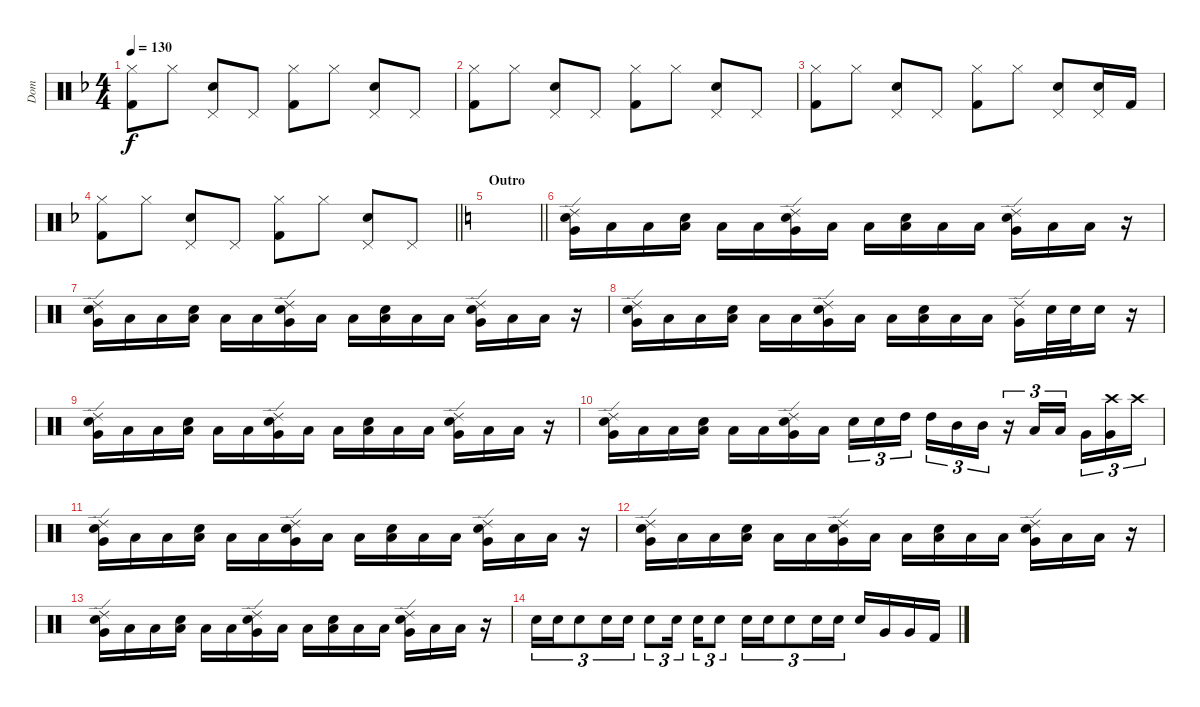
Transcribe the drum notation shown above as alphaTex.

\track ("Dom" "Dom") {instrument percussion}
\staff {score}
\articulation defaults
\ts (4 4)
\tempo 130
\clef neutral
\ks f
("Hi-Hat (closed)" "Kick (hit) 2").8{dy f} "Hi-Hat (closed)".8 ("Pedal Hi-Hat (hit)" "Electric Snare (hit)").8 "Pedal Hi-Hat (hit)".8 ("Hi-Hat (closed)" "Kick (hit) 2").8 "Hi-Hat (closed)".8 ("Pedal Hi-Hat (hit)" "Electric Snare (hit)").8 "Pedal Hi-Hat (hit)".8 |
("Hi-Hat (closed)" "Kick (hit) 2").8 "Hi-Hat (closed)".8 ("Pedal Hi-Hat (hit)" "Electric Snare (hit)").8 "Pedal Hi-Hat (hit)".8 ("Hi-Hat (closed)" "Kick (hit) 2").8 "Hi-Hat (closed)".8 ("Pedal Hi-Hat (hit)" "Electric Snare (hit)").8 "Pedal Hi-Hat (hit)".8 |
("Hi-Hat (closed)" "Kick (hit) 2").8 "Hi-Hat (closed)".8 ("Pedal Hi-Hat (hit)" "Electric Snare (hit)").8 "Pedal Hi-Hat (hit)".8 ("Hi-Hat (closed)" "Kick (hit) 2").8 "Hi-Hat (closed)".8 ("Pedal Hi-Hat (hit)" "Electric Snare (hit)").8 ("Pedal Hi-Hat (hit)" "Electric Snare (hit)").16 "Kick (hit) 2".16 |
\barLineRight lightlight
("Hi-Hat (closed)" "Kick (hit) 2").8 "Hi-Hat (closed)".8 ("Pedal Hi-Hat (hit)" "Electric Snare (hit)").8 "Pedal Hi-Hat (hit)".8 ("Hi-Hat (closed)" "Kick (hit) 2").8 "Hi-Hat (closed)".8 ("Pedal Hi-Hat (hit)" "Electric Snare (hit)").8 "Pedal Hi-Hat (hit)".8 |
\section ("" "Outro")
\barLineRight lightlight
\ks c
|
\section ("" "")
("Ride (edge) 2" "Snare (hit) 2" "Very Low Tom (hit)").16 "Low Floor Tom (hit)".16 "Low Floor Tom (hit)".16 ("Snare (hit) 2" "Low Floor Tom (hit)").16 "Low Floor Tom (hit)".16 "Low Floor Tom (hit)".16 ("Ride (edge) 2" "Snare (hit) 2" "Very Low Tom (hit)").16 "Low Floor Tom (hit)".16 "Low Floor Tom (hit)".16 ("Snare (hit) 2" "Low Floor Tom (hit)").16 "Low Floor Tom (hit)".16 "Low Floor Tom (hit)".16 ("Ride (edge) 2" "Snare (hit) 2" "Very Low Tom (hit)").16 "Low Floor Tom (hit)".16 "Low Floor Tom (hit)".16 r.16 |
("Ride (edge) 2" "Snare (hit) 2" "Very Low Tom (hit)").16 "Low Floor Tom (hit)".16 "Low Floor Tom (hit)".16 ("Snare (hit) 2" "Low Floor Tom (hit)").16 "Low Floor Tom (hit)".16 "Low Floor Tom (hit)".16 ("Ride (edge) 2" "Snare (hit) 2" "Very Low Tom (hit)").16 "Low Floor Tom (hit)".16 "Low Floor Tom (hit)".16 ("Snare (hit) 2" "Low Floor Tom (hit)").16 "Low Floor Tom (hit)".16 "Low Floor Tom (hit)".16 ("Ride (edge) 2" "Snare (hit) 2" "Very Low Tom (hit)").16 "Low Floor Tom (hit)".16 "Low Floor Tom (hit)".16 r.16 |
("Ride (edge) 2" "Snare (hit) 2" "Very Low Tom (hit)").16 "Low Floor Tom (hit)".16 "Low Floor Tom (hit)".16 ("Snare (hit) 2" "Low Floor Tom (hit)").16 "Low Floor Tom (hit)".16 "Low Floor Tom (hit)".16 ("Ride (edge) 2" "Snare (hit) 2" "Very Low Tom (hit)").16 "Low Floor Tom (hit)".16 "Low Floor Tom (hit)".16 ("Snare (hit) 2" "Low Floor Tom (hit)").16 "Low Floor Tom (hit)".16 "Low Floor Tom (hit)".16 ("Ride (edge) 2" "Very Low Tom (hit)").16 "Snare (hit) 2".32 "Snare (hit) 2".32 "Snare (hit) 2".16 r.16 |
("Ride (edge) 2" "Snare (hit) 2" "Very Low Tom (hit)").16 "Low Floor Tom (hit)".16 "Low Floor Tom (hit)".16 ("Snare (hit) 2" "Low Floor Tom (hit)").16 "Low Floor Tom (hit)".16 "Low Floor Tom (hit)".16 ("Ride (edge) 2" "Snare (hit) 2" "Very Low Tom (hit)").16 "Low Floor Tom (hit)".16 "Low Floor Tom (hit)".16 ("Snare (hit) 2" "Low Floor Tom (hit)").16 "Low Floor Tom (hit)".16 "Low Floor Tom (hit)".16 ("Ride (edge) 2" "Snare (hit) 2" "Very Low Tom (hit)").16 "Low Floor Tom (hit)".16 "Low Floor Tom (hit)".16 r.16 |
("Ride (edge) 2" "Snare (hit) 2" "Very Low Tom (hit)").16 "Low Floor Tom (hit)".16 "Low Floor Tom (hit)".16 ("Snare (hit) 2" "Low Floor Tom (hit)").16 "Low Floor Tom (hit)".16 "Low Floor Tom (hit)".16 ("Ride (edge) 2" "Snare (hit) 2" "Very Low Tom (hit)").16 "Low Floor Tom (hit)".16 "Electric Snare (hit)".16{tu (3 2)} "Electric Snare (hit)".16{tu (3 2)} "High Tom (hit)".16{tu (3 2) beam splitsecondary} "High Tom (hit)".16{tu (3 2)} "Mid Tom (hit)".16{tu (3 2)} "Mid Tom (hit)".16{tu (3 2)} r.16{tu (3 2)} "Low Tom (hit)".16{tu (3 2)} "Low Tom (hit)".16{tu (3 2) beam splitsecondary} "Very Low Tom (hit)".16{tu (3 2)} ("Crash high (hit)" "Very Low Tom (hit)").16{tu (3 2)} "Crash high (hit)".16{tu (3 2)} |
("Ride (edge) 2" "Snare (hit) 2" "Very Low Tom (hit)").16 "Low Floor Tom (hit)".16 "Low Floor Tom (hit)".16 ("Snare (hit) 2" "Low Floor Tom (hit)").16 "Low Floor Tom (hit)".16 "Low Floor Tom (hit)".16 ("Ride (edge) 2" "Snare (hit) 2" "Very Low Tom (hit)").16 "Low Floor Tom (hit)".16 "Low Floor Tom (hit)".16 ("Snare (hit) 2" "Low Floor Tom (hit)").16 "Low Floor Tom (hit)".16 "Low Floor Tom (hit)".16 ("Ride (edge) 2" "Snare (hit) 2" "Very Low Tom (hit)").16 "Low Floor Tom (hit)".16 "Low Floor Tom (hit)".16 r.16 |
("Ride (edge) 2" "Snare (hit) 2" "Very Low Tom (hit)").16 "Low Floor Tom (hit)".16 "Low Floor Tom (hit)".16 ("Snare (hit) 2" "Low Floor Tom (hit)").16 "Low Floor Tom (hit)".16 "Low Floor Tom (hit)".16 ("Ride (edge) 2" "Snare (hit) 2" "Very Low Tom (hit)").16 "Low Floor Tom (hit)".16 "Low Floor Tom (hit)".16 ("Snare (hit) 2" "Low Floor Tom (hit)").16 "Low Floor Tom (hit)".16 "Low Floor Tom (hit)".16 ("Ride (edge) 2" "Snare (hit) 2" "Very Low Tom (hit)").16 "Low Floor Tom (hit)".16 "Low Floor Tom (hit)".16 r.16 |
("Ride (edge) 2" "Snare (hit) 2" "Very Low Tom (hit)").16 "Low Floor Tom (hit)".16 "Low Floor Tom (hit)".16 ("Snare (hit) 2" "Low Floor Tom (hit)").16 "Low Floor Tom (hit)".16 "Low Floor Tom (hit)".16 ("Ride (edge) 2" "Snare (hit) 2" "Very Low Tom (hit)").16 "Low Floor Tom (hit)".16 "Low Floor Tom (hit)".16 ("Snare (hit) 2" "Low Floor Tom (hit)").16 "Low Floor Tom (hit)".16 "Low Floor Tom (hit)".16 ("Ride (edge) 2" "Snare (hit) 2" "Very Low Tom (hit)").16 "Low Floor Tom (hit)".16 "Low Floor Tom (hit)".16 r.16 |
"Electric Snare (hit)".16{tu (3 2)} "Electric Snare (hit)".16{tu (3 2)} "Electric Snare (hit)".8{tu (3 2)} "Electric Snare (hit)".16{tu (3 2)} "Electric Snare (hit)".16{tu (3 2)} "Electric Snare (hit)".8{tu (3 2)} "Electric Snare (hit)".16{tu (3 2) beam splitsecondary} "Electric Snare (hit)".16{tu (3 2)} "Electric Snare (hit)".8{tu (3 2)} "Electric Snare (hit)".16{tu (3 2)} "Electric Snare (hit)".16{tu (3 2)} "Electric Snare (hit)".8{tu (3 2)} "Electric Snare (hit)".16{tu (3 2)} "Electric Snare (hit)".16{tu (3 2)} "Electric Snare (hit)".16 "Very Low Tom (hit)".16 "Very Low Tom (hit)".16 "Kick (hit) 2".16
